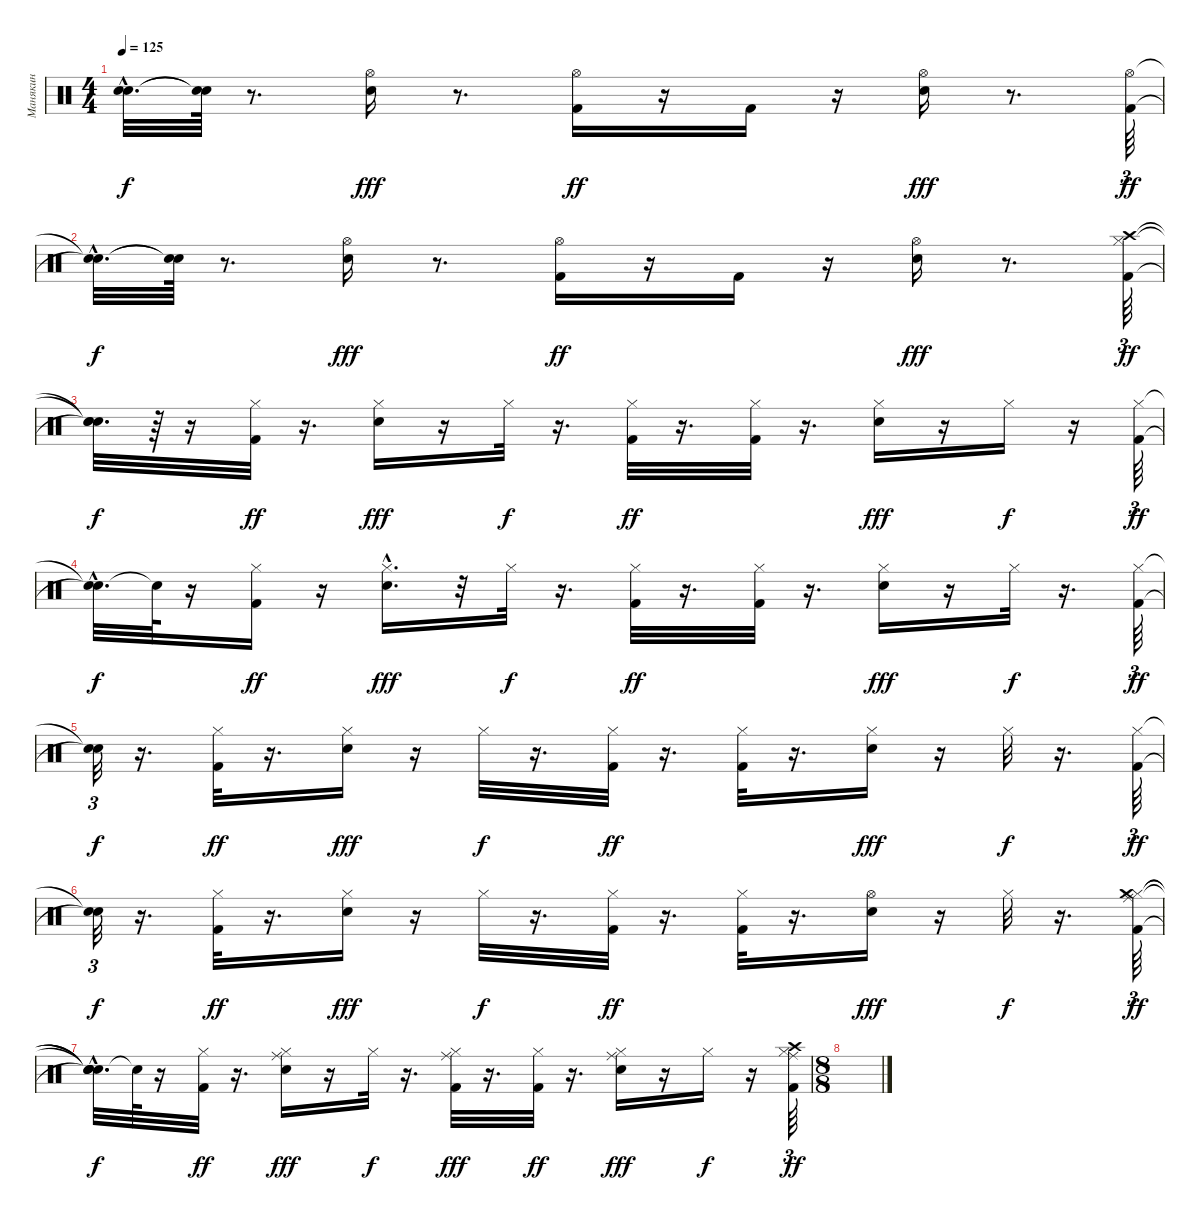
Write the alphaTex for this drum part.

\track ("Манякин" "Манякин") {instrument percussion}
\staff {score}
\articulation defaults
\ts (4 4)
\tempo 125
\clef neutral
\ks c
("Snare (hit)"{hac t} "Snare (hit)"{hac t}).32{d dy f} ("Snare (hit)"{t} "Snare (hit)"{t}).64 r.8{d} ("Snare (hit) 2" "Hi-Hat (open)").16{dy fff} r.8{d} ("Kick (hit) 2" "Hi-Hat (open)").16{dy ff} r.16 "Kick (hit) 2".16 r.16 ("Snare (hit) 2" "Hi-Hat (open)").16{dy fff} r.8{d} ("Kick (hit) 2" "Hi-Hat (open)").64{tu (3 2) dy ff} |
("Snare (hit)"{hac t} "Snare (hit)"{hac t}).32{d dy f} ("Snare (hit)"{t} "Snare (hit)"{t}).64 r.8{d} ("Snare (hit) 2" "Hi-Hat (open)").16{dy fff} r.8{d} ("Kick (hit) 2" "Hi-Hat (open)").16{dy ff} r.16 "Kick (hit) 2".16 r.16 ("Snare (hit) 2" "Hi-Hat (open)").16{dy fff} r.8{d} ("Kick (hit) 2" "Hi-Hat (closed)" "Crash high (hit)").64{tu (3 2) dy ff} |
("Snare (hit)"{t} "Snare (hit)"{t} "Snare (hit)"{t}).32{d dy f} r.64 r.16 ("Kick (hit) 2" "Hi-Hat (closed)").32{dy ff} r.16{d} ("Snare (hit) 2" "Hi-Hat (closed)").16{dy fff} r.16 "Hi-Hat (closed)".32{dy f} r.16{d} ("Kick (hit) 2" "Hi-Hat (closed)").32{dy ff} r.16{d} ("Kick (hit) 2" "Hi-Hat (closed)").32 r.16{d} ("Snare (hit) 2" "Hi-Hat (closed)").16{dy fff} r.16 "Hi-Hat (closed)".16{dy f} r.16 ("Kick (hit) 2" "Hi-Hat (closed)").64{tu (3 2) dy ff} |
("Snare (hit)"{t} "Snare (hit)"{hac t}).32{d dy f} "Snare (hit)"{t}.64 r.16 ("Kick (hit) 2" "Hi-Hat (closed)").16{dy ff} r.16 ("Snare (hit) 2"{hac} "Hi-Hat (closed)").16{d dy fff} r.32 "Hi-Hat (closed)".32{dy f} r.16{d} ("Kick (hit) 2" "Hi-Hat (closed)").32{dy ff} r.16{d} ("Kick (hit) 2" "Hi-Hat (closed)").32 r.16{d} ("Snare (hit) 2" "Hi-Hat (closed)").16{dy fff} r.16 "Hi-Hat (closed)".32{dy f} r.16{d} ("Kick (hit) 2" "Hi-Hat (closed)").64{tu (3 2) dy ff} |
("Snare (hit)"{t} "Snare (hit)"{t}).32{tu (3 2) dy f} r.16{d} ("Kick (hit) 2" "Hi-Hat (closed)").32{dy ff} r.16{d} ("Snare (hit) 2" "Hi-Hat (closed)").16{dy fff} r.16 "Hi-Hat (closed)".32{dy f} r.16{d} ("Kick (hit) 2" "Hi-Hat (closed)").32{dy ff} r.16{d} ("Kick (hit) 2" "Hi-Hat (closed)").32 r.16{d} ("Snare (hit) 2" "Hi-Hat (closed)").16{dy fff} r.16 "Hi-Hat (closed)".32{dy f} r.16{d} ("Kick (hit) 2" "Hi-Hat (closed)").64{tu (3 2) dy ff} |
("Snare (hit)"{t} "Snare (hit)"{t}).32{tu (3 2) dy f} r.16{d} ("Kick (hit) 2" "Hi-Hat (closed)").32{dy ff} r.16{d} ("Snare (hit) 2" "Hi-Hat (closed)").16{dy fff} r.16 "Hi-Hat (closed)".32{dy f} r.16{d} ("Kick (hit) 2" "Hi-Hat (closed)").32{dy ff} r.16{d} ("Kick (hit) 2" "Hi-Hat (closed)").32 r.16{d} ("Snare (hit) 2" "Hi-Hat (open)").16{dy fff} r.16 "Hi-Hat (closed)".32{dy f} r.16{d} ("Kick (hit) 2" "Hi-Hat (closed)" "Ride (middle)" "Crash medium (hit)").64{tu (3 2) dy ff} |
("Snare (hit)"{t} "Snare (hit)"{t} "Snare (hit)"{t} "Snare (hit)"{hac t}).32{d dy f} "Snare (hit)"{t}.64 r.16 ("Kick (hit) 2" "Hi-Hat (closed)").32{dy ff} r.16{d} ("Snare (hit) 2" "Hi-Hat (closed)" "Ride (middle)").16{dy fff} r.16 "Hi-Hat (closed)".32{dy f} r.16{d} ("Kick (hit) 2" "Hi-Hat (closed)" "Ride (middle)").32{dy fff} r.16{d} ("Kick (hit) 2" "Hi-Hat (closed)").32{dy ff} r.16{d} ("Snare (hit) 2" "Hi-Hat (closed)" "Ride (middle)").16{dy fff} r.16 "Hi-Hat (closed)".16{dy f} r.16 ("Kick (hit) 2" "Hi-Hat (closed)" "Ride (middle)" "Crash high (hit)").64{tu (3 2) dy ff} |
\ts (8 8)
